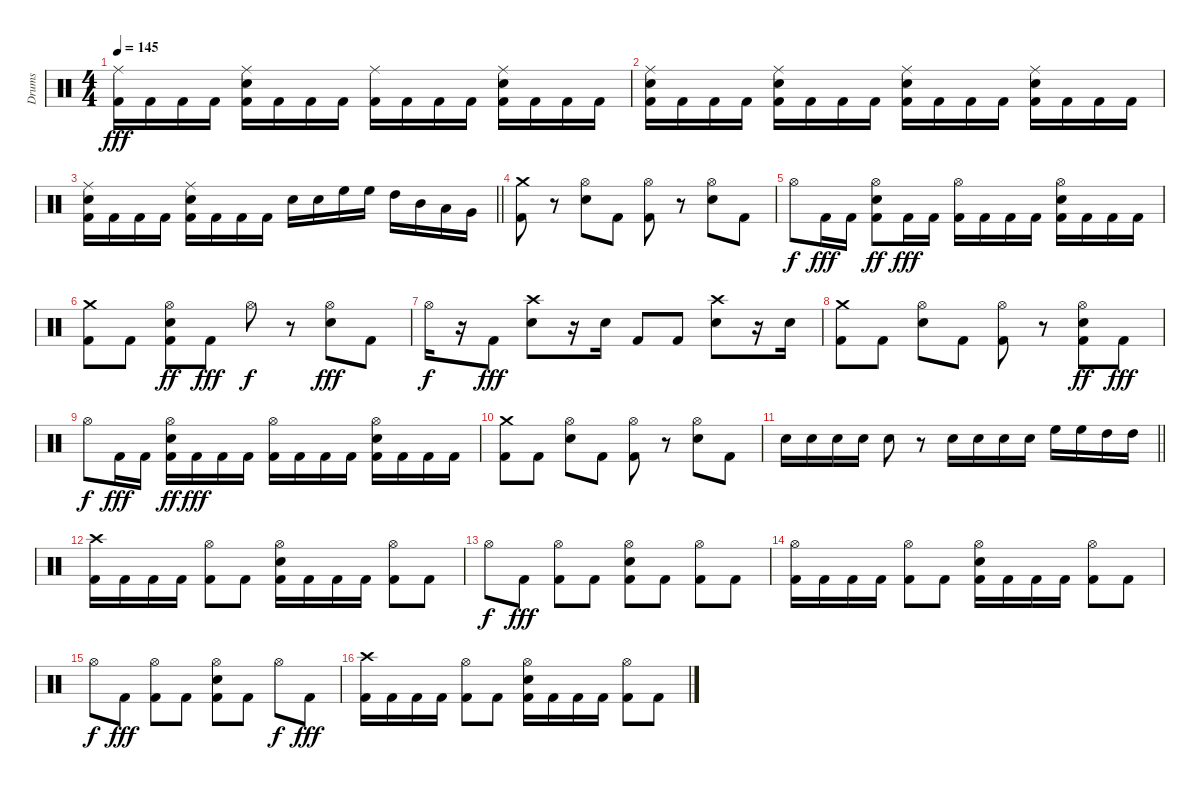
\track ("Drums" "Drums") {instrument percussion}
\staff {score}
\articulation defaults
\ts (4 4)
\tempo 145
\clef neutral
\ks c
("Ride (middle)" "Kick (hit) 2").16{dy fff} "Kick (hit) 2".16 "Kick (hit) 2".16 "Kick (hit) 2".16 ("Ride (middle)" "Snare (hit) 2" "Kick (hit) 2").16 "Kick (hit) 2".16 "Kick (hit) 2".16 "Kick (hit) 2".16 ("Ride (middle)" "Kick (hit) 2").16 "Kick (hit) 2".16 "Kick (hit) 2".16 "Kick (hit) 2".16 ("Ride (middle)" "Snare (hit) 2" "Kick (hit) 2").16 "Kick (hit) 2".16 "Kick (hit) 2".16 "Kick (hit) 2".16 |
("Ride (middle)" "Snare (hit) 2" "Kick (hit) 2").16 "Kick (hit) 2".16 "Kick (hit) 2".16 "Kick (hit) 2".16 ("Ride (middle)" "Snare (hit) 2" "Kick (hit) 2").16 "Kick (hit) 2".16 "Kick (hit) 2".16 "Kick (hit) 2".16 ("Ride (middle)" "Snare (hit) 2" "Kick (hit) 2").16 "Kick (hit) 2".16 "Kick (hit) 2".16 "Kick (hit) 2".16 ("Ride (middle)" "Snare (hit) 2" "Kick (hit) 2").16 "Kick (hit) 2".16 "Kick (hit) 2".16 "Kick (hit) 2".16 |
\barLineRight lightlight
("Ride (middle)" "Snare (hit) 2" "Kick (hit) 2").16 "Kick (hit) 2".16 "Kick (hit) 2".16 "Kick (hit) 2".16 ("Ride (middle)" "Snare (hit) 2" "Kick (hit) 2").16 "Kick (hit) 2".16 "Kick (hit) 2".16 "Kick (hit) 2".16 "Snare (hit) 2".16 "Snare (hit) 2".16 "High Floor Tom (hit)".16 "High Floor Tom (hit)".16 "High Tom (hit)".16 "Mid Tom (hit)".16 "Low Tom (hit)".16 "Very Low Tom (hit)".16 |
("Crash medium (hit)" "Kick (hit) 2").8 r.8 ("Hi-Hat (open)" "Snare (hit) 2").8 "Kick (hit) 2".8 ("Hi-Hat (open)" "Kick (hit) 2").8 r.8 ("Hi-Hat (open)" "Snare (hit) 2").8 "Kick (hit) 2".8 |
"Hi-Hat (open)".8{dy f} "Kick (hit) 2".16{dy fff} "Kick (hit) 2".16 ("Hi-Hat (open)" "Snare (hit) 2" "Kick (hit) 2").8{dy ff} "Kick (hit) 2".16{dy fff} "Kick (hit) 2".16 ("Hi-Hat (open)" "Kick (hit) 2").16 "Kick (hit) 2".16 "Kick (hit) 2".16 "Kick (hit) 2".16 ("Hi-Hat (open)" "Snare (hit) 2" "Kick (hit) 2").16 "Kick (hit) 2".16 "Kick (hit) 2".16 "Kick (hit) 2".16 |
("Crash medium (hit)" "Kick (hit) 2").8 "Kick (hit) 2".8 ("Hi-Hat (open)" "Snare (hit) 2" "Kick (hit) 2").8{dy ff} "Kick (hit) 2".8{dy fff} "Hi-Hat (open)".8{dy f} r.8 ("Hi-Hat (open)" "Snare (hit) 2").8{dy fff} "Kick (hit) 2".8 |
"Hi-Hat (open)".16{dy f} r.16 "Kick (hit) 2".8{dy fff} ("Crash high (hit)" "Snare (hit) 2").8 r.16 "Snare (hit) 2".16 "Kick (hit) 2".8 "Kick (hit) 2".8 ("Crash high (hit)" "Snare (hit) 2").8 r.16 "Snare (hit) 2".16 |
("Crash medium (hit)" "Kick (hit) 2").8 "Kick (hit) 2".8 ("Hi-Hat (open)" "Snare (hit) 2").8 "Kick (hit) 2".8 ("Hi-Hat (open)" "Kick (hit) 2").8 r.8 ("Hi-Hat (open)" "Snare (hit) 2" "Kick (hit) 2").8{dy ff} "Kick (hit) 2".8{dy fff} |
"Hi-Hat (open)".8{dy f} "Kick (hit) 2".16{dy fff} "Kick (hit) 2".16 ("Hi-Hat (open)" "Snare (hit) 2" "Kick (hit) 2").16{dy ff} "Kick (hit) 2".16{dy fff} "Kick (hit) 2".16 "Kick (hit) 2".16 ("Hi-Hat (open)" "Kick (hit) 2").16 "Kick (hit) 2".16 "Kick (hit) 2".16 "Kick (hit) 2".16 ("Hi-Hat (open)" "Snare (hit) 2" "Kick (hit) 2").16 "Kick (hit) 2".16 "Kick (hit) 2".16 "Kick (hit) 2".16 |
("Crash medium (hit)" "Kick (hit) 2").8 "Kick (hit) 2".8 ("Hi-Hat (open)" "Snare (hit) 2").8 "Kick (hit) 2".8 ("Hi-Hat (open)" "Kick (hit) 2").8 r.8 ("Hi-Hat (open)" "Snare (hit) 2").8 "Kick (hit) 2".8 |
\barLineRight lightlight "Snare (hit) 2".16 "Snare (hit) 2".16 "Snare (hit) 2".16 "Snare (hit) 2".16 "Snare (hit) 2".8
r.8 "Snare (hit) 2".16 "Snare (hit) 2".16 "Snare (hit) 2".16 "Snare (hit) 2".16 "High Floor Tom (hit)".16 "High Floor Tom (hit)".16 "High Tom (hit)".16 "High Tom (hit)".16 |
("Crash high (hit)" "Kick (hit) 2").16 "Kick (hit) 2".16 "Kick (hit) 2".16 "Kick (hit) 2".16 ("Hi-Hat (open)" "Kick (hit) 2").8 "Kick (hit) 2".8 ("Hi-Hat (open)" "Snare (hit) 2" "Kick (hit) 2").16 "Kick (hit) 2".16 "Kick (hit) 2".16 "Kick (hit) 2".16 ("Hi-Hat (open)" "Kick (hit) 2").8 "Kick (hit) 2".8 |
"Hi-Hat (open)".8{dy f} "Kick (hit) 2".8{dy fff} ("Hi-Hat (open)" "Kick (hit) 2").8 "Kick (hit) 2".8 ("Hi-Hat (open)" "Snare (hit) 2" "Kick (hit) 2").8 "Kick (hit) 2".8 ("Hi-Hat (open)" "Kick (hit) 2").8 "Kick (hit) 2".8 |
("Hi-Hat (open)" "Kick (hit) 2").16 "Kick (hit) 2".16 "Kick (hit) 2".16 "Kick (hit) 2".16 ("Hi-Hat (open)" "Kick (hit) 2").8 "Kick (hit) 2".8 ("Hi-Hat (open)" "Snare (hit) 2" "Kick (hit) 2").16 "Kick (hit) 2".16 "Kick (hit) 2".16 "Kick (hit) 2".16 ("Hi-Hat (open)" "Kick (hit) 2").8 "Kick (hit) 2".8 |
"Hi-Hat (open)".8{dy f} "Kick (hit) 2".8{dy fff} ("Hi-Hat (open)" "Kick (hit) 2").8 "Kick (hit) 2".8 ("Hi-Hat (open)" "Snare (hit) 2" "Kick (hit) 2").8 "Kick (hit) 2".8 "Hi-Hat (open)".8{dy f} "Kick (hit) 2".8{dy fff} |
("Crash high (hit)" "Kick (hit) 2").16 "Kick (hit) 2".16 "Kick (hit) 2".16 "Kick (hit) 2".16 ("Hi-Hat (open)" "Kick (hit) 2").8 "Kick (hit) 2".8 ("Hi-Hat (open)" "Snare (hit) 2" "Kick (hit) 2").16 "Kick (hit) 2".16 "Kick (hit) 2".16 "Kick (hit) 2".16 ("Hi-Hat (open)" "Kick (hit) 2").8 "Kick (hit) 2".8
